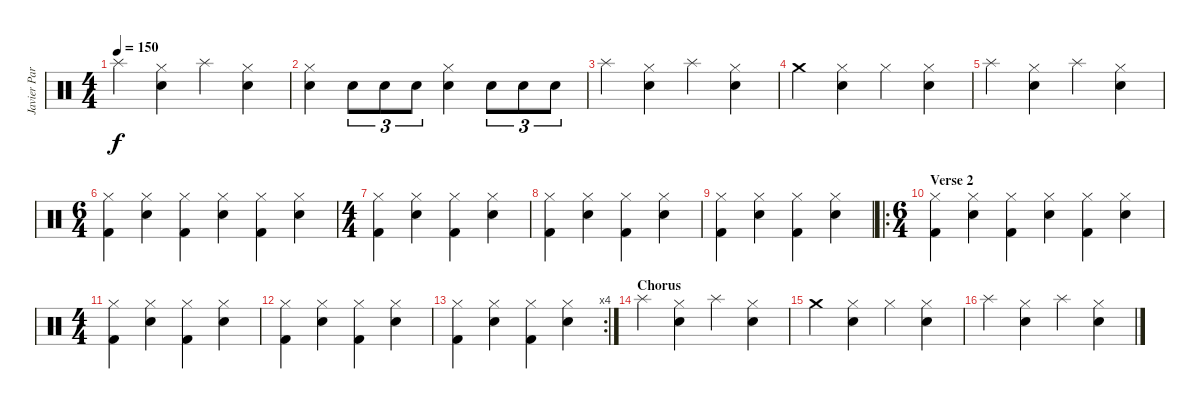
\track ("Javier Partida" "Javier Par") {instrument percussion}
\staff {score}
\articulation defaults
\ts (4 4)
\tempo 150
\clef neutral
\ks c "Splash (hit)".4{dy f}
("Snare (hit) 2" "Hi-Hat (closed)").4 "Splash (hit)".4 ("Snare (hit) 2" "Hi-Hat (closed)").4 |
("Snare (hit) 2" "Hi-Hat (closed)").4 "Snare (hit) 2".8{tu (3 2)} "Snare (hit) 2".8{tu (3 2)} "Snare (hit) 2".8{tu (3 2)} ("Snare (hit) 2" "Hi-Hat (closed)").4 "Snare (hit) 2".8{tu (3 2)} "Snare (hit) 2".8{tu (3 2)} "Snare (hit) 2".8{tu (3 2)} |
"Splash (hit)".4 ("Snare (hit) 2" "Hi-Hat (closed)").4 "Splash (hit)".4 ("Snare (hit) 2" "Hi-Hat (closed)").4 |
"Crash medium (hit)".4 ("Snare (hit) 2" "Hi-Hat (closed)").4 "Hi-Hat (closed)".4 ("Snare (hit) 2" "Hi-Hat (closed)").4 |
"Splash (hit)".4 ("Snare (hit) 2" "Hi-Hat (closed)").4 "Splash (hit)".4 ("Snare (hit) 2" "Hi-Hat (closed)").4 |
\ts (6 4)
("Hi-Hat (closed)" "Kick (hit) 2").4 ("Snare (hit) 2" "Hi-Hat (closed)").4 ("Hi-Hat (closed)" "Kick (hit) 2").4 ("Snare (hit) 2" "Hi-Hat (closed)").4 ("Hi-Hat (closed)" "Kick (hit) 2").4 ("Snare (hit) 2" "Hi-Hat (closed)").4 |
\ts (4 4)
("Hi-Hat (closed)" "Kick (hit) 2").4 ("Snare (hit) 2" "Hi-Hat (closed)").4 ("Hi-Hat (closed)" "Kick (hit) 2").4 ("Snare (hit) 2" "Hi-Hat (closed)").4 |
("Hi-Hat (closed)" "Kick (hit) 2").4 ("Snare (hit) 2" "Hi-Hat (closed)").4 ("Hi-Hat (closed)" "Kick (hit) 2").4 ("Snare (hit) 2" "Hi-Hat (closed)").4 |
("Hi-Hat (closed)" "Kick (hit) 2").4 ("Snare (hit) 2" "Hi-Hat (closed)").4 ("Hi-Hat (closed)" "Kick (hit) 2").4 ("Snare (hit) 2" "Hi-Hat (closed)").4 |
\ro
\ts (6 4)
\section ("" "Verse 2")
("Hi-Hat (closed)" "Kick (hit) 2").4 ("Snare (hit) 2" "Hi-Hat (closed)").4 ("Hi-Hat (closed)" "Kick (hit) 2").4 ("Snare (hit) 2" "Hi-Hat (closed)").4 ("Hi-Hat (closed)" "Kick (hit) 2").4 ("Snare (hit) 2" "Hi-Hat (closed)").4 |
\ts (4 4)
("Hi-Hat (closed)" "Kick (hit) 2").4 ("Snare (hit) 2" "Hi-Hat (closed)").4 ("Hi-Hat (closed)" "Kick (hit) 2").4 ("Snare (hit) 2" "Hi-Hat (closed)").4 |
("Hi-Hat (closed)" "Kick (hit) 2").4 ("Snare (hit) 2" "Hi-Hat (closed)").4 ("Hi-Hat (closed)" "Kick (hit) 2").4 ("Snare (hit) 2" "Hi-Hat (closed)").4 |
\rc 4
("Hi-Hat (closed)" "Kick (hit) 2").4 ("Snare (hit) 2" "Hi-Hat (closed)").4 ("Hi-Hat (closed)" "Kick (hit) 2").4 ("Snare (hit) 2" "Hi-Hat (closed)").4 |
\section ("" "Chorus")
"Splash (hit)".4 ("Snare (hit) 2" "Hi-Hat (closed)").4 "Splash (hit)".4 ("Snare (hit) 2" "Hi-Hat (closed)").4 |
"Crash medium (hit)".4 ("Snare (hit) 2" "Hi-Hat (closed)").4 "Hi-Hat (closed)".4 ("Snare (hit) 2" "Hi-Hat (closed)").4 |
"Splash (hit)".4 ("Snare (hit) 2" "Hi-Hat (closed)").4 "Splash (hit)".4 ("Snare (hit) 2" "Hi-Hat (closed)").4
